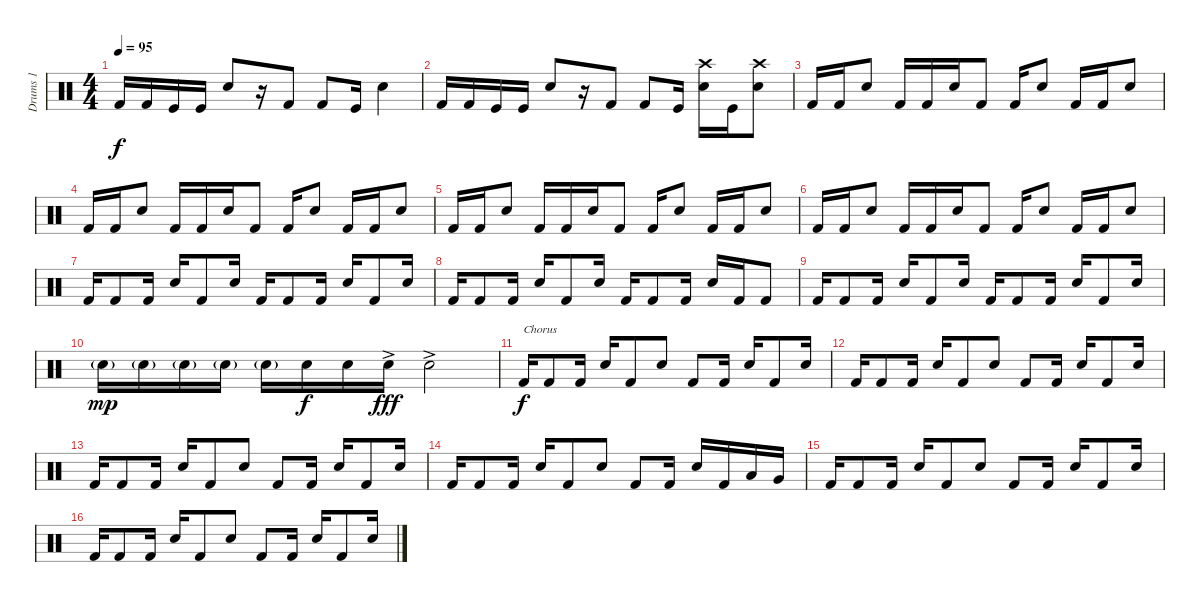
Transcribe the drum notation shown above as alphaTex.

\track ("Drums 1" "Drums 1") {instrument percussion}
\staff {score}
\articulation defaults
\ts (4 4)
\tempo 95
\clef neutral
\ks c "Kick (hit) 2".16{dy f} "Kick (hit) 2".16 "Kick (hit)".16 "Kick (hit)".16 "Snare (hit) 2".8
r.16 "Kick (hit) 2".8 "Kick (hit) 2".8 "Kick (hit)".16 "Snare (hit) 2".4 |
"Kick (hit) 2".16 "Kick (hit) 2".16 "Kick (hit)".16 "Kick (hit)".16 "Snare (hit) 2".8 r.16 "Kick (hit) 2".8 "Kick (hit) 2".8 "Kick (hit)".16 ("Snare (hit) 2" "Crash high (hit)").16 "Kick (hit)".16 ("Snare (hit) 2" "Crash high (hit)").8 |
"Kick (hit) 2".16 "Kick (hit) 2".16 "Snare (hit) 2".8 "Kick (hit) 2".16 "Kick (hit) 2".16 "Snare (hit) 2".16 "Kick (hit) 2".8 "Kick (hit) 2".16 "Snare (hit) 2".8 "Kick (hit) 2".16 "Kick (hit) 2".16 "Snare (hit) 2".8 |
"Kick (hit) 2".16 "Kick (hit) 2".16 "Snare (hit) 2".8 "Kick (hit) 2".16 "Kick (hit) 2".16 "Snare (hit) 2".16 "Kick (hit) 2".8 "Kick (hit) 2".16 "Snare (hit) 2".8 "Kick (hit) 2".16 "Kick (hit) 2".16 "Snare (hit) 2".8 |
"Kick (hit) 2".16 "Kick (hit) 2".16 "Snare (hit) 2".8 "Kick (hit) 2".16 "Kick (hit) 2".16 "Snare (hit) 2".16 "Kick (hit) 2".8 "Kick (hit) 2".16 "Snare (hit) 2".8 "Kick (hit) 2".16 "Kick (hit) 2".16 "Snare (hit) 2".8 |
"Kick (hit) 2".16 "Kick (hit) 2".16 "Snare (hit) 2".8 "Kick (hit) 2".16 "Kick (hit) 2".16 "Snare (hit) 2".16 "Kick (hit) 2".8 "Kick (hit) 2".16 "Snare (hit) 2".8 "Kick (hit) 2".16 "Kick (hit) 2".16 "Snare (hit) 2".8 |
"Kick (hit) 2".16 "Kick (hit) 2".8 "Kick (hit) 2".16 "Snare (hit) 2".16 "Kick (hit) 2".8 "Snare (hit) 2".16 "Kick (hit) 2".16 "Kick (hit) 2".8 "Kick (hit) 2".16 "Snare (hit) 2".16 "Kick (hit) 2".8 "Snare (hit) 2".16 |
"Kick (hit) 2".16 "Kick (hit) 2".8 "Kick (hit) 2".16 "Snare (hit) 2".16 "Kick (hit) 2".8 "Snare (hit) 2".16 "Kick (hit) 2".16 "Kick (hit) 2".8 "Kick (hit) 2".16 "Snare (hit) 2".16 "Kick (hit) 2".16 "Kick (hit) 2".8 |
"Kick (hit) 2".16 "Kick (hit) 2".8 "Kick (hit) 2".16 "Snare (hit) 2".16 "Kick (hit) 2".8 "Snare (hit) 2".16 "Kick (hit) 2".16 "Kick (hit) 2".8 "Kick (hit) 2".16 "Snare (hit) 2".16 "Kick (hit) 2".8 "Snare (hit) 2".16 |
"Snare (hit) 2"{g}.16{dy mp} "Snare (hit) 2"{g}.16 "Snare (hit) 2"{g}.16 "Snare (hit) 2"{g}.16 "Snare (hit) 2"{g}.16 "Snare (hit) 2".16{dy f} "Snare (hit) 2".16 "Snare (hit) 2"{ac}.16{dy fff} "Snare (hit) 2"{ac}.2 |
"Kick (hit) 2".16{txt "Chorus" dy f} "Kick (hit) 2".8 "Kick (hit) 2".16 "Snare (hit) 2".16 "Kick (hit) 2".8 "Snare (hit) 2".8 "Kick (hit) 2".8 "Kick (hit) 2".16 "Snare (hit) 2".16 "Kick (hit) 2".8 "Snare (hit) 2".16 |
"Kick (hit) 2".16 "Kick (hit) 2".8 "Kick (hit) 2".16 "Snare (hit) 2".16 "Kick (hit) 2".8 "Snare (hit) 2".8 "Kick (hit) 2".8 "Kick (hit) 2".16 "Snare (hit) 2".16 "Kick (hit) 2".8 "Snare (hit) 2".16 |
"Kick (hit) 2".16 "Kick (hit) 2".8 "Kick (hit) 2".16 "Snare (hit) 2".16 "Kick (hit) 2".8 "Snare (hit) 2".8 "Kick (hit) 2".8 "Kick (hit) 2".16 "Snare (hit) 2".16 "Kick (hit) 2".8 "Snare (hit) 2".16 |
"Kick (hit) 2".16 "Kick (hit) 2".8 "Kick (hit) 2".16 "Snare (hit) 2".16 "Kick (hit) 2".8 "Snare (hit) 2".8 "Kick (hit) 2".8 "Kick (hit) 2".16 "Snare (hit) 2".16 "Kick (hit) 2".16 "Low Tom (hit)".16 "Very Low Tom (hit)".16 |
"Kick (hit) 2".16 "Kick (hit) 2".8 "Kick (hit) 2".16 "Snare (hit) 2".16 "Kick (hit) 2".8 "Snare (hit) 2".8 "Kick (hit) 2".8 "Kick (hit) 2".16 "Snare (hit) 2".16 "Kick (hit) 2".8 "Snare (hit) 2".16 |
"Kick (hit) 2".16 "Kick (hit) 2".8 "Kick (hit) 2".16 "Snare (hit) 2".16 "Kick (hit) 2".8 "Snare (hit) 2".8 "Kick (hit) 2".8 "Kick (hit) 2".16 "Snare (hit) 2".16 "Kick (hit) 2".8 "Snare (hit) 2".16
